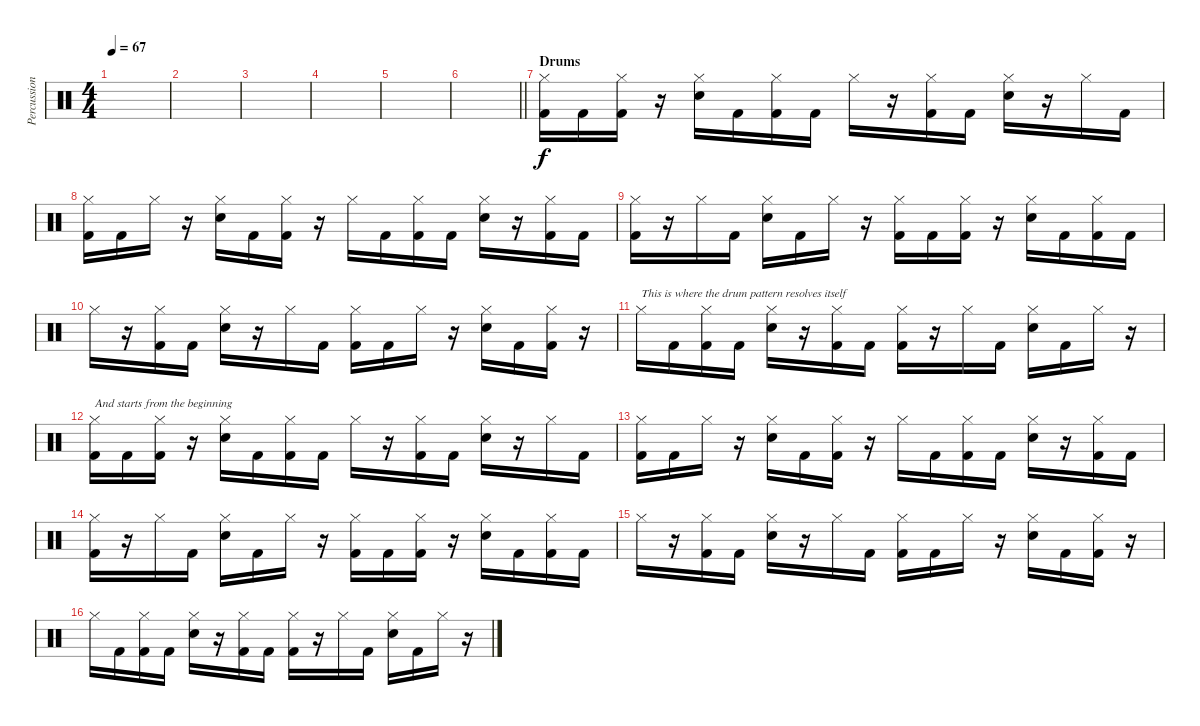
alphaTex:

\track ("Percussion" "Percussion") {instrument percussion}
\staff {score}
\articulation defaults
\ts (4 4)
\tempo 67
\clef neutral
\ks c
|
|
|
|
|
\barLineRight lightlight
|
\section ("" "Drums")
("Hi-Hat (closed)" "Kick (hit) 2").16 "Kick (hit) 2".16 ("Hi-Hat (closed)" "Kick (hit) 2").16 r.16 ("Hi-Hat (closed)" "Electric Snare (hit)").16 "Kick (hit) 2".16 ("Hi-Hat (closed)" "Kick (hit) 2").16 "Kick (hit) 2".16 "Hi-Hat (closed)".16 r.16 ("Hi-Hat (closed)" "Kick (hit) 2").16 "Kick (hit) 2".16 ("Hi-Hat (closed)" "Electric Snare (hit)").16 r.16 "Hi-Hat (closed)".16 "Kick (hit) 2".16 |
("Hi-Hat (closed)" "Kick (hit) 2").16 "Kick (hit) 2".16 "Hi-Hat (closed)".16 r.16 ("Hi-Hat (closed)" "Electric Snare (hit)").16 "Kick (hit) 2".16 ("Hi-Hat (closed)" "Kick (hit) 2").16 r.16 "Hi-Hat (closed)".16 "Kick (hit) 2".16 ("Hi-Hat (closed)" "Kick (hit) 2").16 "Kick (hit) 2".16 ("Hi-Hat (closed)" "Electric Snare (hit)").16 r.16 ("Hi-Hat (closed)" "Kick (hit) 2").16 "Kick (hit) 2".16 |
("Hi-Hat (closed)" "Kick (hit) 2").16 r.16 "Hi-Hat (closed)".16 "Kick (hit) 2".16 ("Hi-Hat (closed)" "Electric Snare (hit)").16 "Kick (hit) 2".16 "Hi-Hat (closed)".16 r.16 ("Hi-Hat (closed)" "Kick (hit) 2").16 "Kick (hit) 2".16 ("Hi-Hat (closed)" "Kick (hit) 2").16 r.16 ("Hi-Hat (closed)" "Electric Snare (hit)").16 "Kick (hit) 2".16 ("Hi-Hat (closed)" "Kick (hit) 2").16 "Kick (hit) 2".16 |
"Hi-Hat (closed)".16 r.16 ("Hi-Hat (closed)" "Kick (hit) 2").16 "Kick (hit) 2".16 ("Hi-Hat (closed)" "Electric Snare (hit)").16 r.16 "Hi-Hat (closed)".16 "Kick (hit) 2".16 ("Hi-Hat (closed)" "Kick (hit) 2").16 "Kick (hit) 2".16 "Hi-Hat (closed)".16 r.16 ("Hi-Hat (closed)" "Electric Snare (hit)").16 "Kick (hit) 2".16 ("Hi-Hat (closed)" "Kick (hit) 2").16 r.16 |
"Hi-Hat (closed)".16{txt "This is where the drum pattern resolves itself"} "Kick (hit) 2".16 ("Hi-Hat (closed)" "Kick (hit) 2").16 "Kick (hit) 2".16 ("Hi-Hat (closed)" "Electric Snare (hit)").16 r.16 ("Hi-Hat (closed)" "Kick (hit) 2").16 "Kick (hit) 2".16 ("Hi-Hat (closed)" "Kick (hit) 2").16 r.16 "Hi-Hat (closed)".16 "Kick (hit) 2".16 ("Hi-Hat (closed)" "Electric Snare (hit)").16 "Kick (hit) 2".16 "Hi-Hat (closed)".16 r.16 |
("Hi-Hat (closed)" "Kick (hit) 2").16{txt "And starts from the beginning"} "Kick (hit) 2".16 ("Hi-Hat (closed)" "Kick (hit) 2").16 r.16 ("Hi-Hat (closed)" "Electric Snare (hit)").16 "Kick (hit) 2".16 ("Hi-Hat (closed)" "Kick (hit) 2").16 "Kick (hit) 2".16 "Hi-Hat (closed)".16 r.16 ("Hi-Hat (closed)" "Kick (hit) 2").16 "Kick (hit) 2".16 ("Hi-Hat (closed)" "Electric Snare (hit)").16 r.16 "Hi-Hat (closed)".16 "Kick (hit) 2".16 |
("Hi-Hat (closed)" "Kick (hit) 2").16 "Kick (hit) 2".16 "Hi-Hat (closed)".16 r.16 ("Hi-Hat (closed)" "Electric Snare (hit)").16 "Kick (hit) 2".16 ("Hi-Hat (closed)" "Kick (hit) 2").16 r.16 "Hi-Hat (closed)".16 "Kick (hit) 2".16 ("Hi-Hat (closed)" "Kick (hit) 2").16 "Kick (hit) 2".16 ("Hi-Hat (closed)" "Electric Snare (hit)").16 r.16 ("Hi-Hat (closed)" "Kick (hit) 2").16 "Kick (hit) 2".16 |
("Hi-Hat (closed)" "Kick (hit) 2").16 r.16 "Hi-Hat (closed)".16 "Kick (hit) 2".16 ("Hi-Hat (closed)" "Electric Snare (hit)").16 "Kick (hit) 2".16 "Hi-Hat (closed)".16 r.16 ("Hi-Hat (closed)" "Kick (hit) 2").16 "Kick (hit) 2".16 ("Hi-Hat (closed)" "Kick (hit) 2").16 r.16 ("Hi-Hat (closed)" "Electric Snare (hit)").16 "Kick (hit) 2".16 ("Hi-Hat (closed)" "Kick (hit) 2").16 "Kick (hit) 2".16 |
"Hi-Hat (closed)".16 r.16 ("Hi-Hat (closed)" "Kick (hit) 2").16 "Kick (hit) 2".16 ("Hi-Hat (closed)" "Electric Snare (hit)").16 r.16 "Hi-Hat (closed)".16 "Kick (hit) 2".16 ("Hi-Hat (closed)" "Kick (hit) 2").16 "Kick (hit) 2".16 "Hi-Hat (closed)".16 r.16 ("Hi-Hat (closed)" "Electric Snare (hit)").16 "Kick (hit) 2".16 ("Hi-Hat (closed)" "Kick (hit) 2").16 r.16 |
"Hi-Hat (closed)".16 "Kick (hit) 2".16 ("Hi-Hat (closed)" "Kick (hit) 2").16 "Kick (hit) 2".16 ("Hi-Hat (closed)" "Electric Snare (hit)").16 r.16 ("Hi-Hat (closed)" "Kick (hit) 2").16 "Kick (hit) 2".16 ("Hi-Hat (closed)" "Kick (hit) 2").16 r.16 "Hi-Hat (closed)".16 "Kick (hit) 2".16 ("Hi-Hat (closed)" "Electric Snare (hit)").16 "Kick (hit) 2".16 "Hi-Hat (closed)".16 r.16
